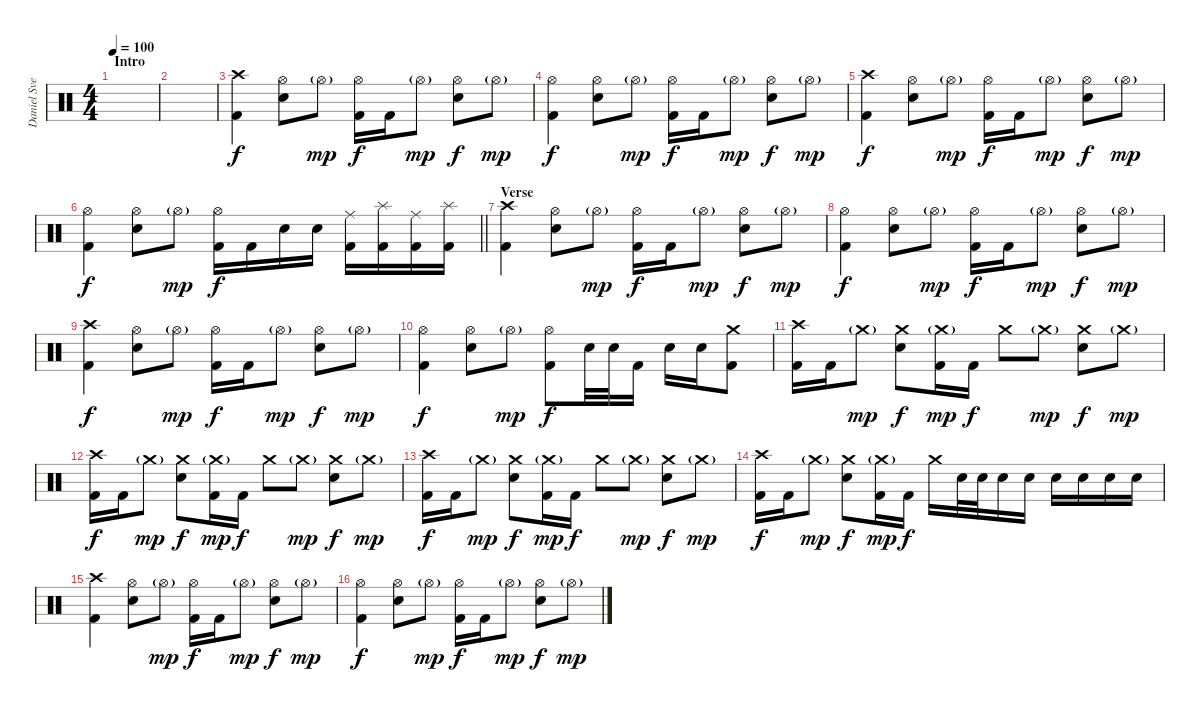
\track ("Daniel Svensson" "Daniel Sve") {instrument percussion}
\staff {score}
\articulation defaults
\ts (4 4)
\section ("" "Intro")
\tempo 100
\clef neutral
\ks c
|
|
("Crash high (hit)" "Kick (hit) 2").4 ("Hi-Hat (open)" "Snare (hit) 2").8 "Hi-Hat (open)"{g}.8{dy mp} ("Hi-Hat (open)" "Kick (hit) 2").16{dy f} "Kick (hit) 2".16 "Hi-Hat (open)"{g}.8{dy mp} ("Hi-Hat (open)" "Snare (hit) 2").8{dy f} "Hi-Hat (open)"{g}.8{dy mp} |
("Hi-Hat (open)" "Kick (hit) 2").4{dy f} ("Hi-Hat (open)" "Snare (hit) 2").8 "Hi-Hat (open)"{g}.8{dy mp} ("Hi-Hat (open)" "Kick (hit) 2").16{dy f} "Kick (hit) 2".16 "Hi-Hat (open)"{g}.8{dy mp} ("Hi-Hat (open)" "Snare (hit) 2").8{dy f} "Hi-Hat (open)"{g}.8{dy mp} |
("Crash high (hit)" "Kick (hit) 2").4{dy f} ("Hi-Hat (open)" "Snare (hit) 2").8 "Hi-Hat (open)"{g}.8{dy mp} ("Hi-Hat (open)" "Kick (hit) 2").16{dy f} "Kick (hit) 2".16 "Hi-Hat (open)"{g}.8{dy mp} ("Hi-Hat (open)" "Snare (hit) 2").8{dy f} "Hi-Hat (open)"{g}.8{dy mp} |
\barLineRight lightlight
("Hi-Hat (open)" "Kick (hit) 2").4{dy f} ("Hi-Hat (open)" "Snare (hit) 2").8 "Hi-Hat (open)"{g}.8{dy mp} ("Hi-Hat (open)" "Kick (hit) 2").16{dy f} "Kick (hit) 2".16 "Snare (hit) 2".16 "Snare (hit) 2".16 ("Ride (middle)" "Kick (hit) 2").16 ("Splash (hit)" "Kick (hit) 2").16 ("Ride (middle)" "Kick (hit) 2").16 ("Splash (hit)" "Kick (hit) 2").16 |
\section ("" "Verse")
("Crash high (hit)" "Kick (hit) 2").4 ("Hi-Hat (open)" "Snare (hit) 2").8 "Hi-Hat (open)"{g}.8{dy mp} ("Hi-Hat (open)" "Kick (hit) 2").16{dy f} "Kick (hit) 2".16 "Hi-Hat (open)"{g}.8{dy mp} ("Hi-Hat (open)" "Snare (hit) 2").8{dy f} "Hi-Hat (open)"{g}.8{dy mp} |
("Hi-Hat (open)" "Kick (hit) 2").4{dy f} ("Hi-Hat (open)" "Snare (hit) 2").8 "Hi-Hat (open)"{g}.8{dy mp} ("Hi-Hat (open)" "Kick (hit) 2").16{dy f} "Kick (hit) 2".16 "Hi-Hat (open)"{g}.8{dy mp} ("Hi-Hat (open)" "Snare (hit) 2").8{dy f} "Hi-Hat (open)"{g}.8{dy mp} |
("Crash high (hit)" "Kick (hit) 2").4{dy f} ("Hi-Hat (open)" "Snare (hit) 2").8 "Hi-Hat (open)"{g}.8{dy mp} ("Hi-Hat (open)" "Kick (hit) 2").16{dy f} "Kick (hit) 2".16 "Hi-Hat (open)"{g}.8{dy mp} ("Hi-Hat (open)" "Snare (hit) 2").8{dy f} "Hi-Hat (open)"{g}.8{dy mp} |
("Hi-Hat (open)" "Kick (hit) 2").4{dy f} ("Hi-Hat (open)" "Snare (hit) 2").8 "Hi-Hat (open)"{g}.8{dy mp} ("Hi-Hat (open)" "Kick (hit) 2").8{dy f} "Snare (hit) 2".32 "Snare (hit) 2".32 "Kick (hit) 2".16 "Snare (hit) 2".16 "Snare (hit) 2".16 ("Crash medium (hit)" "Kick (hit) 2").8 |
("Crash high (hit)" "Kick (hit) 2").16 "Kick (hit) 2".16 "Crash medium (hit)"{g}.8{dy mp} ("Crash medium (hit)" "Snare (hit) 2").8{dy f} ("Crash medium (hit)"{g} "Kick (hit) 2").16{dy mp} "Kick (hit) 2".16{dy f} "Crash medium (hit)".8 "Crash medium (hit)"{g}.8{dy mp} ("Crash medium (hit)" "Snare (hit) 2").8{dy f} "Crash medium (hit)"{g}.8{dy mp} |
("Crash high (hit)" "Kick (hit) 2").16{dy f} "Kick (hit) 2".16 "Crash medium (hit)"{g}.8{dy mp} ("Crash medium (hit)" "Snare (hit) 2").8{dy f} ("Crash medium (hit)"{g} "Kick (hit) 2").16{dy mp} "Kick (hit) 2".16{dy f} "Crash medium (hit)".8 "Crash medium (hit)"{g}.8{dy mp} ("Crash medium (hit)" "Snare (hit) 2").8{dy f} "Crash medium (hit)"{g}.8{dy mp} |
("Crash high (hit)" "Kick (hit) 2").16{dy f} "Kick (hit) 2".16 "Crash medium (hit)"{g}.8{dy mp} ("Crash medium (hit)" "Snare (hit) 2").8{dy f} ("Crash medium (hit)"{g} "Kick (hit) 2").16{dy mp} "Kick (hit) 2".16{dy f} "Crash medium (hit)".8 "Crash medium (hit)"{g}.8{dy mp} ("Crash medium (hit)" "Snare (hit) 2").8{dy f} "Crash medium (hit)"{g}.8{dy mp} |
("Crash high (hit)" "Kick (hit) 2").16{dy f} "Kick (hit) 2".16 "Crash medium (hit)"{g}.8{dy mp} ("Crash medium (hit)" "Snare (hit) 2").8{dy f} ("Crash medium (hit)"{g} "Kick (hit) 2").16{dy mp} "Kick (hit) 2".16{dy f} "Crash medium (hit)".16 "Snare (hit) 2".32 "Snare (hit) 2".32 "Snare (hit) 2".16 "Snare (hit) 2".16 "Snare (hit) 2".16 "Snare (hit) 2".16 "Snare (hit) 2".16 "Snare (hit) 2".16 |
("Crash high (hit)" "Kick (hit) 2").4 ("Hi-Hat (open)" "Snare (hit) 2").8 "Hi-Hat (open)"{g}.8{dy mp} ("Hi-Hat (open)" "Kick (hit) 2").16{dy f} "Kick (hit) 2".16 "Hi-Hat (open)"{g}.8{dy mp} ("Hi-Hat (open)" "Snare (hit) 2").8{dy f} "Hi-Hat (open)"{g}.8{dy mp} |
("Hi-Hat (open)" "Kick (hit) 2").4{dy f} ("Hi-Hat (open)" "Snare (hit) 2").8 "Hi-Hat (open)"{g}.8{dy mp} ("Hi-Hat (open)" "Kick (hit) 2").16{dy f} "Kick (hit) 2".16 "Hi-Hat (open)"{g}.8{dy mp} ("Hi-Hat (open)" "Snare (hit) 2").8{dy f} "Hi-Hat (open)"{g}.8{dy mp}
